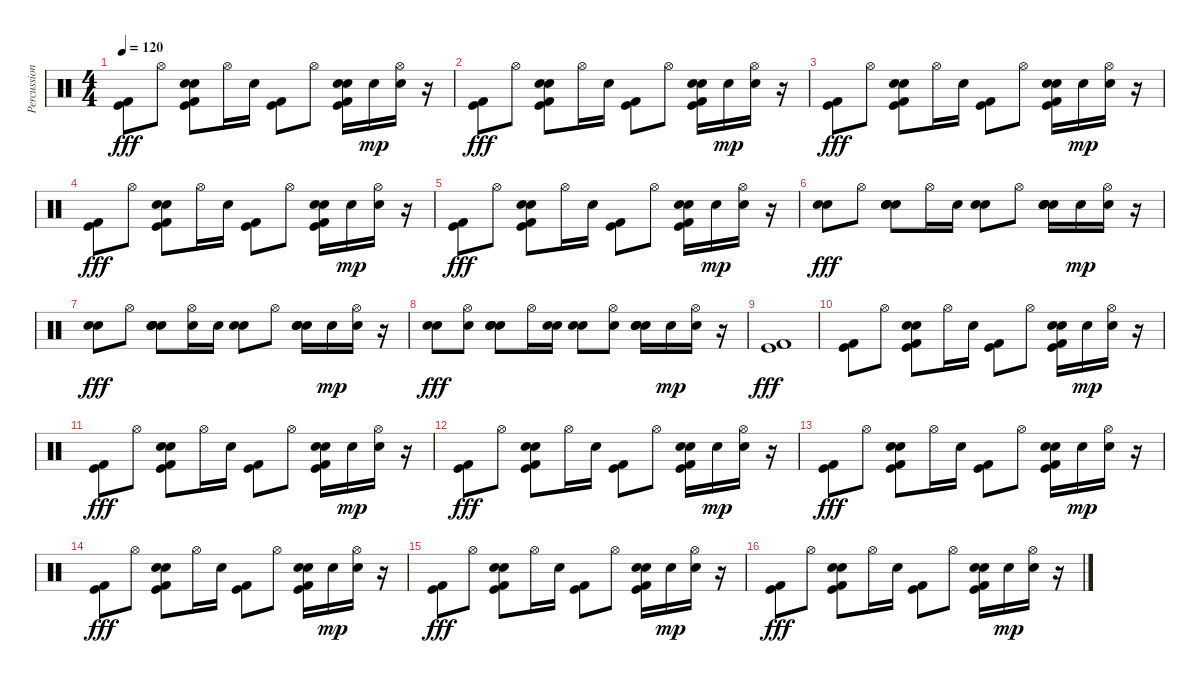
\track ("Percussion" "Percussion") {instrument percussion}
\staff {score}
\articulation defaults
\ts (4 4)
\tempo 120
\clef neutral
\ks c
("Kick (hit) 2" "Kick (hit)").8{dy fff} "Hi-Hat (open)".8 ("Kick (hit) 2" "Kick (hit)" "Hand Clap (hit)" "Electric Snare (hit)").8 "Hi-Hat (open)".16 "Electric Snare (hit)".16 ("Kick (hit) 2" "Kick (hit)").8 "Hi-Hat (open)".8 ("Kick (hit) 2" "Kick (hit)" "Hand Clap (hit)" "Electric Snare (hit)").16 "Electric Snare (hit)".16{dy mp} ("Hi-Hat (open)" "Electric Snare (hit)").16 r.16 |
("Kick (hit) 2" "Kick (hit)").8{dy fff} "Hi-Hat (open)".8 ("Kick (hit) 2" "Kick (hit)" "Hand Clap (hit)" "Electric Snare (hit)").8 "Hi-Hat (open)".16 "Electric Snare (hit)".16 ("Kick (hit) 2" "Kick (hit)").8 "Hi-Hat (open)".8 ("Kick (hit) 2" "Kick (hit)" "Hand Clap (hit)" "Electric Snare (hit)").16 "Electric Snare (hit)".16{dy mp} ("Hi-Hat (open)" "Electric Snare (hit)").16 r.16 |
("Kick (hit) 2" "Kick (hit)").8{dy fff} "Hi-Hat (open)".8 ("Kick (hit) 2" "Kick (hit)" "Hand Clap (hit)" "Electric Snare (hit)").8 "Hi-Hat (open)".16 "Electric Snare (hit)".16 ("Kick (hit) 2" "Kick (hit)").8 "Hi-Hat (open)".8 ("Kick (hit) 2" "Kick (hit)" "Hand Clap (hit)" "Electric Snare (hit)").16 "Electric Snare (hit)".16{dy mp} ("Hi-Hat (open)" "Electric Snare (hit)").16 r.16 |
("Kick (hit) 2" "Kick (hit)").8{dy fff} "Hi-Hat (open)".8 ("Kick (hit) 2" "Kick (hit)" "Hand Clap (hit)" "Electric Snare (hit)").8 "Hi-Hat (open)".16 "Electric Snare (hit)".16 ("Kick (hit) 2" "Kick (hit)").8 "Hi-Hat (open)".8 ("Kick (hit) 2" "Kick (hit)" "Hand Clap (hit)" "Electric Snare (hit)").16 "Electric Snare (hit)".16{dy mp} ("Hi-Hat (open)" "Electric Snare (hit)").16 r.16 |
("Kick (hit) 2" "Kick (hit)").8{dy fff} "Hi-Hat (open)".8 ("Kick (hit) 2" "Kick (hit)" "Hand Clap (hit)" "Electric Snare (hit)").8 "Hi-Hat (open)".16 "Electric Snare (hit)".16 ("Kick (hit) 2" "Kick (hit)").8 "Hi-Hat (open)".8 ("Kick (hit) 2" "Kick (hit)" "Hand Clap (hit)" "Electric Snare (hit)").16 "Electric Snare (hit)".16{dy mp} ("Hi-Hat (open)" "Electric Snare (hit)").16 r.16 |
("Snare (hit)" "Snare (hit)").8{dy fff} "Hi-Hat (open)".8 ("Snare (hit)" "Snare (hit)" "Hand Clap (hit)" "Electric Snare (hit)").8 "Hi-Hat (open)".16 "Electric Snare (hit)".16 ("Snare (hit)" "Snare (hit)").8 "Hi-Hat (open)".8 ("Snare (hit)" "Snare (hit)" "Hand Clap (hit)" "Electric Snare (hit)").16 "Electric Snare (hit)".16{dy mp} ("Hi-Hat (open)" "Electric Snare (hit)").16 r.16 |
("Snare (hit)" "Snare (hit)").8{dy fff} "Hi-Hat (open)".8 ("Snare (hit)" "Snare (hit)" "Hand Clap (hit)" "Electric Snare (hit)").8 ("Snare (hit)" "Hi-Hat (open)").16 "Electric Snare (hit)".16 ("Snare (hit)" "Snare (hit)").8 "Hi-Hat (open)".8 ("Snare (hit)" "Snare (hit)" "Hand Clap (hit)" "Electric Snare (hit)").16 "Electric Snare (hit)".16{dy mp} ("Hi-Hat (open)" "Electric Snare (hit)").16 r.16 |
("Snare (hit)" "Snare (hit)").8{dy fff} ("Snare (hit)" "Hi-Hat (open)").8 ("Snare (hit)" "Snare (hit)" "Hand Clap (hit)" "Electric Snare (hit)").8 "Hi-Hat (open)".16 ("Snare (hit)" "Electric Snare (hit)").16 ("Snare (hit)" "Snare (hit)").8 ("Snare (hit)" "Hi-Hat (open)").8 ("Snare (hit)" "Snare (hit)" "Hand Clap (hit)" "Electric Snare (hit)").16 "Electric Snare (hit)".16{dy mp} ("Hi-Hat (open)" "Electric Snare (hit)").16 r.16 |
("Kick (hit) 2" "Kick (hit)").1{dy fff} |
("Kick (hit) 2" "Kick (hit)").8 "Hi-Hat (open)".8 ("Kick (hit) 2" "Kick (hit)" "Hand Clap (hit)" "Electric Snare (hit)").8 "Hi-Hat (open)".16 "Electric Snare (hit)".16 ("Kick (hit) 2" "Kick (hit)").8 "Hi-Hat (open)".8 ("Kick (hit) 2" "Kick (hit)" "Hand Clap (hit)" "Electric Snare (hit)").16 "Electric Snare (hit)".16{dy mp} ("Hi-Hat (open)" "Electric Snare (hit)").16 r.16 |
("Kick (hit) 2" "Kick (hit)").8{dy fff} "Hi-Hat (open)".8 ("Kick (hit) 2" "Kick (hit)" "Hand Clap (hit)" "Electric Snare (hit)").8 "Hi-Hat (open)".16 "Electric Snare (hit)".16 ("Kick (hit) 2" "Kick (hit)").8 "Hi-Hat (open)".8 ("Kick (hit) 2" "Kick (hit)" "Hand Clap (hit)" "Electric Snare (hit)").16 "Electric Snare (hit)".16{dy mp} ("Hi-Hat (open)" "Electric Snare (hit)").16 r.16 |
("Kick (hit) 2" "Kick (hit)").8{dy fff} "Hi-Hat (open)".8 ("Kick (hit) 2" "Kick (hit)" "Hand Clap (hit)" "Electric Snare (hit)").8 "Hi-Hat (open)".16 "Electric Snare (hit)".16 ("Kick (hit) 2" "Kick (hit)").8 "Hi-Hat (open)".8 ("Kick (hit) 2" "Kick (hit)" "Hand Clap (hit)" "Electric Snare (hit)").16 "Electric Snare (hit)".16{dy mp} ("Hi-Hat (open)" "Electric Snare (hit)").16 r.16 |
("Kick (hit) 2" "Kick (hit)").8{dy fff} "Hi-Hat (open)".8 ("Kick (hit) 2" "Kick (hit)" "Hand Clap (hit)" "Electric Snare (hit)").8 "Hi-Hat (open)".16 "Electric Snare (hit)".16 ("Kick (hit) 2" "Kick (hit)").8 "Hi-Hat (open)".8 ("Kick (hit) 2" "Kick (hit)" "Hand Clap (hit)" "Electric Snare (hit)").16 "Electric Snare (hit)".16{dy mp} ("Hi-Hat (open)" "Electric Snare (hit)").16 r.16 |
("Kick (hit) 2" "Kick (hit)").8{dy fff} "Hi-Hat (open)".8 ("Kick (hit) 2" "Kick (hit)" "Hand Clap (hit)" "Electric Snare (hit)").8 "Hi-Hat (open)".16 "Electric Snare (hit)".16 ("Kick (hit) 2" "Kick (hit)").8 "Hi-Hat (open)".8 ("Kick (hit) 2" "Kick (hit)" "Hand Clap (hit)" "Electric Snare (hit)").16 "Electric Snare (hit)".16{dy mp} ("Hi-Hat (open)" "Electric Snare (hit)").16 r.16 |
("Kick (hit) 2" "Kick (hit)").8{dy fff} "Hi-Hat (open)".8 ("Kick (hit) 2" "Kick (hit)" "Hand Clap (hit)" "Electric Snare (hit)").8 "Hi-Hat (open)".16 "Electric Snare (hit)".16 ("Kick (hit) 2" "Kick (hit)").8 "Hi-Hat (open)".8 ("Kick (hit) 2" "Kick (hit)" "Hand Clap (hit)" "Electric Snare (hit)").16 "Electric Snare (hit)".16{dy mp} ("Hi-Hat (open)" "Electric Snare (hit)").16 r.16 |
("Kick (hit) 2" "Kick (hit)").8{dy fff} "Hi-Hat (open)".8 ("Kick (hit) 2" "Kick (hit)" "Hand Clap (hit)" "Electric Snare (hit)").8 "Hi-Hat (open)".16 "Electric Snare (hit)".16 ("Kick (hit) 2" "Kick (hit)").8 "Hi-Hat (open)".8 ("Kick (hit) 2" "Kick (hit)" "Hand Clap (hit)" "Electric Snare (hit)").16 "Electric Snare (hit)".16{dy mp} ("Hi-Hat (open)" "Electric Snare (hit)").16 r.16
